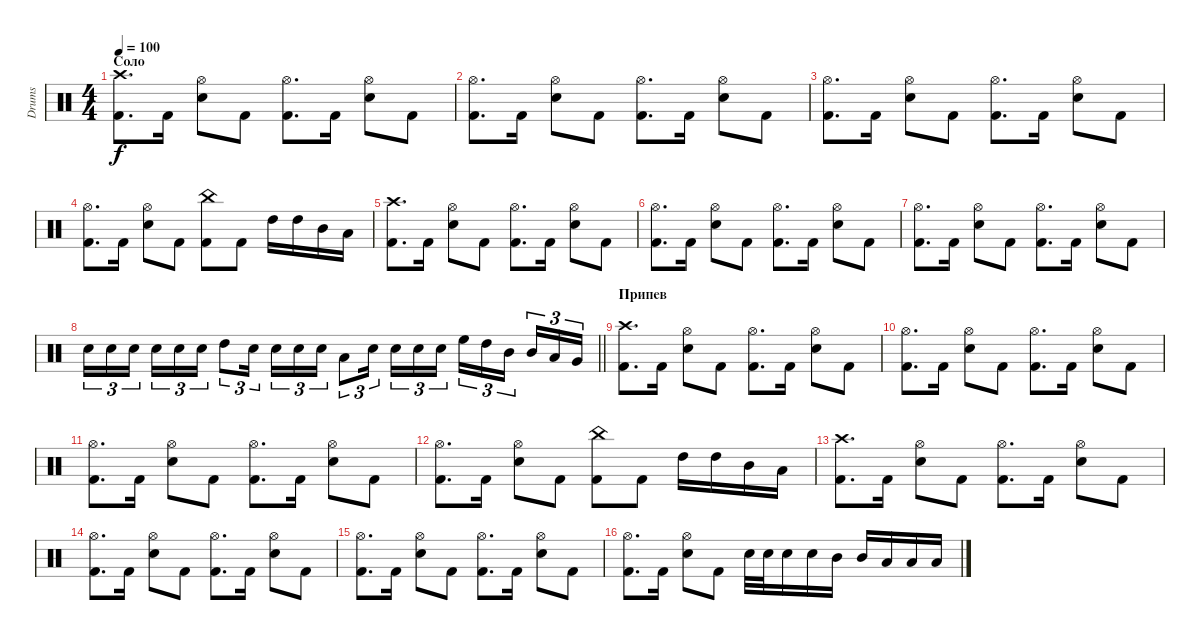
\track ("Drums" "Drums") {instrument percussion}
\staff {score}
\articulation defaults
\ts (4 4)
\section ("" "Соло")
\tempo 100
\clef neutral
\ks c
("Crash high (hit)" "Kick (hit) 2").8{d dy f} "Kick (hit) 2".16 ("Hi-Hat (open)" "Snare (hit) 2").8 "Kick (hit) 2".8 ("Hi-Hat (open)" "Kick (hit) 2").8{d} "Kick (hit) 2".16 ("Hi-Hat (open)" "Snare (hit) 2").8 "Kick (hit) 2".8 |
("Hi-Hat (open)" "Kick (hit) 2").8{d} "Kick (hit) 2".16 ("Hi-Hat (open)" "Snare (hit) 2").8 "Kick (hit) 2".8 ("Hi-Hat (open)" "Kick (hit) 2").8{d} "Kick (hit) 2".16 ("Hi-Hat (open)" "Snare (hit) 2").8 "Kick (hit) 2".8 |
("Hi-Hat (open)" "Kick (hit) 2").8{d} "Kick (hit) 2".16 ("Hi-Hat (open)" "Snare (hit) 2").8 "Kick (hit) 2".8 ("Hi-Hat (open)" "Kick (hit) 2").8{d} "Kick (hit) 2".16 ("Hi-Hat (open)" "Snare (hit) 2").8 "Kick (hit) 2".8 |
("Hi-Hat (open)" "Kick (hit) 2").8{d} "Kick (hit) 2".16 ("Hi-Hat (open)" "Snare (hit) 2").8 "Kick (hit) 2".8 ("China (hit)" "Kick (hit) 2").8 "Kick (hit) 2".8 "High Tom (hit)".16 "High Tom (hit)".16 "Mid Tom (hit)".16 "Low Tom (hit)".16 |
("Crash high (hit)" "Kick (hit) 2").8{d} "Kick (hit) 2".16 ("Hi-Hat (open)" "Snare (hit) 2").8 "Kick (hit) 2".8 ("Hi-Hat (open)" "Kick (hit) 2").8{d} "Kick (hit) 2".16 ("Hi-Hat (open)" "Snare (hit) 2").8 "Kick (hit) 2".8 |
("Hi-Hat (open)" "Kick (hit) 2").8{d} "Kick (hit) 2".16 ("Hi-Hat (open)" "Snare (hit) 2").8 "Kick (hit) 2".8 ("Hi-Hat (open)" "Kick (hit) 2").8{d} "Kick (hit) 2".16 ("Hi-Hat (open)" "Snare (hit) 2").8 "Kick (hit) 2".8 |
("Hi-Hat (open)" "Kick (hit) 2").8{d} "Kick (hit) 2".16 ("Hi-Hat (open)" "Snare (hit) 2").8 "Kick (hit) 2".8 ("Hi-Hat (open)" "Kick (hit) 2").8{d} "Kick (hit) 2".16 ("Hi-Hat (open)" "Snare (hit) 2").8 "Kick (hit) 2".8 |
\barLineRight lightlight "Snare (hit) 2".16{tu (3 2)} "Snare (hit) 2".16{tu (3 2)} "Snare (hit) 2".16{tu (3 2) beam splitsecondary} "Snare (hit) 2".16{tu (3 2)} "Snare (hit) 2".16{tu (3 2)} "Snare (hit) 2".16{tu (3 2)} "High Tom (hit)".8{tu (3 2)} "Snare (hit) 2".16{tu (3 2) beam splitsecondary} "Snare (hit) 2".16{tu (3 2)} "Snare (hit) 2".16{tu (3 2)} "Snare (hit) 2".16{tu (3 2)} "Low Tom (hit)".8{tu (3 2)} "Snare (hit) 2".16{tu (3 2) beam splitsecondary} "Snare (hit) 2".16{tu (3 2)} "Snare (hit) 2".16{tu (3 2)} "Snare (hit) 2".16{tu (3 2)} "High Floor Tom (hit)".16{tu (3 2)} "High Tom (hit)".16{tu (3 2)} "Mid Tom (hit)".16{tu (3 2) beam splitsecondary} "Mid Tom (hit)".16{tu (3 2)} "Low Tom (hit)".16{tu (3 2)} "Very Low Tom (hit)".16{tu (3 2)}
|
\section ("" "Припев")
("Crash high (hit)" "Kick (hit) 2").8{d} "Kick (hit) 2".16 ("Hi-Hat (open)" "Snare (hit) 2").8 "Kick (hit) 2".8 ("Hi-Hat (open)" "Kick (hit) 2").8{d} "Kick (hit) 2".16 ("Hi-Hat (open)" "Snare (hit) 2").8 "Kick (hit) 2".8 |
("Hi-Hat (open)" "Kick (hit) 2").8{d} "Kick (hit) 2".16 ("Hi-Hat (open)" "Snare (hit) 2").8 "Kick (hit) 2".8 ("Hi-Hat (open)" "Kick (hit) 2").8{d} "Kick (hit) 2".16 ("Hi-Hat (open)" "Snare (hit) 2").8 "Kick (hit) 2".8 |
("Hi-Hat (open)" "Kick (hit) 2").8{d} "Kick (hit) 2".16 ("Hi-Hat (open)" "Snare (hit) 2").8 "Kick (hit) 2".8 ("Hi-Hat (open)" "Kick (hit) 2").8{d} "Kick (hit) 2".16 ("Hi-Hat (open)" "Snare (hit) 2").8 "Kick (hit) 2".8 |
("Hi-Hat (open)" "Kick (hit) 2").8{d} "Kick (hit) 2".16 ("Hi-Hat (open)" "Snare (hit) 2").8 "Kick (hit) 2".8 ("China (hit)" "Kick (hit) 2").8 "Kick (hit) 2".8 "High Tom (hit)".16 "High Tom (hit)".16 "Mid Tom (hit)".16 "Low Tom (hit)".16 |
("Crash high (hit)" "Kick (hit) 2").8{d} "Kick (hit) 2".16 ("Hi-Hat (open)" "Snare (hit) 2").8 "Kick (hit) 2".8 ("Hi-Hat (open)" "Kick (hit) 2").8{d} "Kick (hit) 2".16 ("Hi-Hat (open)" "Snare (hit) 2").8 "Kick (hit) 2".8 |
("Hi-Hat (open)" "Kick (hit) 2").8{d} "Kick (hit) 2".16 ("Hi-Hat (open)" "Snare (hit) 2").8 "Kick (hit) 2".8 ("Hi-Hat (open)" "Kick (hit) 2").8{d} "Kick (hit) 2".16 ("Hi-Hat (open)" "Snare (hit) 2").8 "Kick (hit) 2".8 |
("Hi-Hat (open)" "Kick (hit) 2").8{d} "Kick (hit) 2".16 ("Hi-Hat (open)" "Snare (hit) 2").8 "Kick (hit) 2".8 ("Hi-Hat (open)" "Kick (hit) 2").8{d} "Kick (hit) 2".16 ("Hi-Hat (open)" "Snare (hit) 2").8 "Kick (hit) 2".8 |
("Hi-Hat (open)" "Kick (hit) 2").8{d} "Kick (hit) 2".16 ("Hi-Hat (open)" "Snare (hit) 2").8 "Kick (hit) 2".8 "Snare (hit) 2".32 "Snare (hit) 2".32 "Snare (hit) 2".16 "Snare (hit) 2".16 "Mid Tom (hit)".16 "Mid Tom (hit)".16 "Low Tom (hit)".16 "Low Tom (hit)".16 "Low Tom (hit)".16
